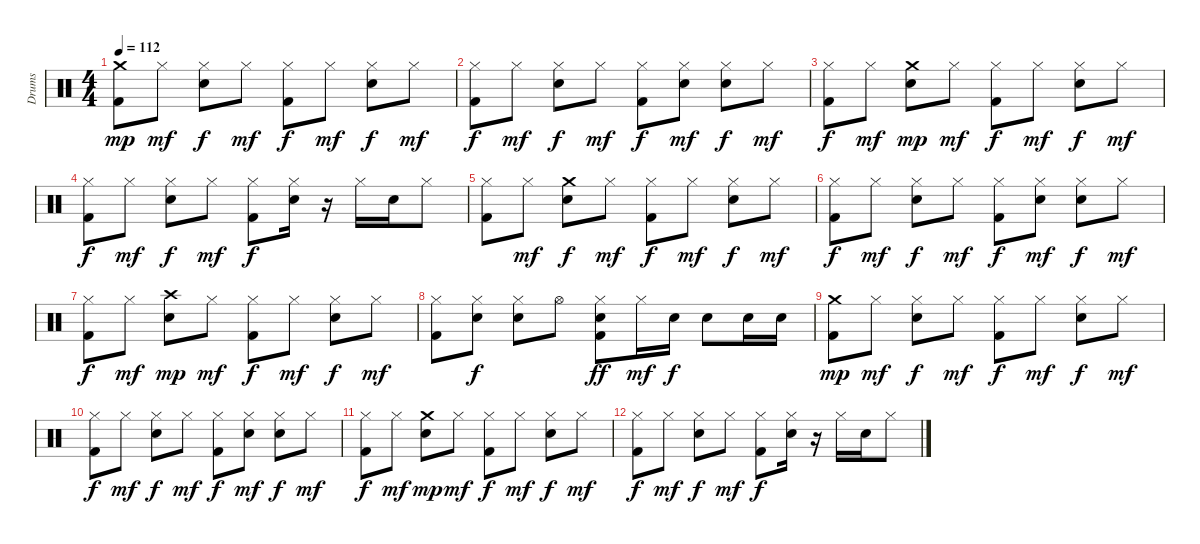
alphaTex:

\track ("Drums" "Drums") {instrument percussion}
\staff {score}
\articulation defaults
\ts (4 4)
\tempo 112
\clef neutral
\ks c
("Crash medium (hit)" "Kick (hit) 2").8{dy mp} "Hi-Hat (closed)".8{dy mf} ("Hi-Hat (closed)" "Snare (hit) 2").8{dy f} "Hi-Hat (closed)".8{dy mf} ("Hi-Hat (closed)" "Kick (hit) 2").8{dy f} "Hi-Hat (closed)".8{dy mf} ("Hi-Hat (closed)" "Snare (hit) 2").8{dy f} "Hi-Hat (closed)".8{dy mf} |
("Hi-Hat (closed)" "Kick (hit) 2").8{dy f} "Hi-Hat (closed)".8{dy mf} ("Hi-Hat (closed)" "Snare (hit) 2").8{dy f} "Hi-Hat (closed)".8{dy mf} ("Hi-Hat (closed)" "Kick (hit) 2").8{dy f} ("Hi-Hat (closed)" "Snare (hit) 2").8{dy mf} ("Hi-Hat (closed)" "Snare (hit) 2").8{dy f} "Hi-Hat (closed)".8{dy mf} |
("Hi-Hat (closed)" "Kick (hit) 2").8{dy f} "Hi-Hat (closed)".8{dy mf} ("Crash medium (hit)" "Snare (hit) 2").8{dy mp} "Hi-Hat (closed)".8{dy mf} ("Hi-Hat (closed)" "Kick (hit) 2").8{dy f} "Hi-Hat (closed)".8{dy mf} ("Hi-Hat (closed)" "Snare (hit) 2").8{dy f} "Hi-Hat (closed)".8{dy mf} |
("Hi-Hat (closed)" "Kick (hit) 2").8{dy f} "Hi-Hat (closed)".8{dy mf} ("Hi-Hat (closed)" "Snare (hit) 2").8{dy f} "Hi-Hat (closed)".8{dy mf} ("Hi-Hat (closed)" "Kick (hit) 2").8{dy f} ("Hi-Hat (closed)" "Snare (hit) 2").16 r.16 "Hi-Hat (closed)".16 "Snare (hit) 2".16 "Hi-Hat (closed)".8 |
("Hi-Hat (closed)" "Kick (hit) 2").8 "Hi-Hat (closed)".8{dy mf} ("Crash medium (hit)" "Snare (hit) 2").8{dy f} "Hi-Hat (closed)".8{dy mf} ("Hi-Hat (closed)" "Kick (hit) 2").8{dy f} "Hi-Hat (closed)".8{dy mf} ("Hi-Hat (closed)" "Snare (hit) 2").8{dy f} "Hi-Hat (closed)".8{dy mf} |
("Hi-Hat (closed)" "Kick (hit) 2").8{dy f} "Hi-Hat (closed)".8{dy mf} ("Hi-Hat (closed)" "Snare (hit) 2").8{dy f} "Hi-Hat (closed)".8{dy mf} ("Hi-Hat (closed)" "Kick (hit) 2").8{dy f} ("Hi-Hat (closed)" "Snare (hit) 2").8{dy mf} ("Hi-Hat (closed)" "Snare (hit) 2").8{dy f} "Hi-Hat (closed)".8{dy mf} |
("Hi-Hat (closed)" "Kick (hit) 2").8{dy f} "Hi-Hat (closed)".8{dy mf} ("Crash high (hit)" "Snare (hit) 2").8{dy mp} "Hi-Hat (closed)".8{dy mf} ("Hi-Hat (closed)" "Kick (hit) 2").8{dy f} "Hi-Hat (closed)".8{dy mf} ("Hi-Hat (closed)" "Snare (hit) 2").8{dy f} "Hi-Hat (closed)".8{dy mf} |
("Hi-Hat (closed)" "Kick (hit) 2").8 ("Hi-Hat (closed)" "Snare (hit) 2").8{dy f} ("Hi-Hat (closed)" "Snare (hit) 2").8 "Hi-Hat (open)".8 ("Hi-Hat (closed)" "Snare (hit) 2" "Kick (hit) 2").8{dy ff} "Hi-Hat (closed)".16{dy mf} "Snare (hit) 2".16{dy f} "Snare (hit) 2".8 "Snare (hit) 2".16 "Snare (hit) 2".16 |
("Crash medium (hit)" "Kick (hit) 2").8{dy mp} "Hi-Hat (closed)".8{dy mf} ("Hi-Hat (closed)" "Snare (hit) 2").8{dy f} "Hi-Hat (closed)".8{dy mf} ("Hi-Hat (closed)" "Kick (hit) 2").8{dy f} "Hi-Hat (closed)".8{dy mf} ("Hi-Hat (closed)" "Snare (hit) 2").8{dy f} "Hi-Hat (closed)".8{dy mf} |
("Hi-Hat (closed)" "Kick (hit) 2").8{dy f} "Hi-Hat (closed)".8{dy mf} ("Hi-Hat (closed)" "Snare (hit) 2").8{dy f} "Hi-Hat (closed)".8{dy mf} ("Hi-Hat (closed)" "Kick (hit) 2").8{dy f} ("Hi-Hat (closed)" "Snare (hit) 2").8{dy mf} ("Hi-Hat (closed)" "Snare (hit) 2").8{dy f} "Hi-Hat (closed)".8{dy mf} |
("Hi-Hat (closed)" "Kick (hit) 2").8{dy f} "Hi-Hat (closed)".8{dy mf} ("Crash medium (hit)" "Snare (hit) 2").8{dy mp} "Hi-Hat (closed)".8{dy mf} ("Hi-Hat (closed)" "Kick (hit) 2").8{dy f} "Hi-Hat (closed)".8{dy mf} ("Hi-Hat (closed)" "Snare (hit) 2").8{dy f} "Hi-Hat (closed)".8{dy mf} |
("Hi-Hat (closed)" "Kick (hit) 2").8{dy f} "Hi-Hat (closed)".8{dy mf} ("Hi-Hat (closed)" "Snare (hit) 2").8{dy f} "Hi-Hat (closed)".8{dy mf} ("Hi-Hat (closed)" "Kick (hit) 2").8{dy f} ("Hi-Hat (closed)" "Snare (hit) 2").16 r.16 "Hi-Hat (closed)".16 "Snare (hit) 2".16 "Hi-Hat (closed)".8
